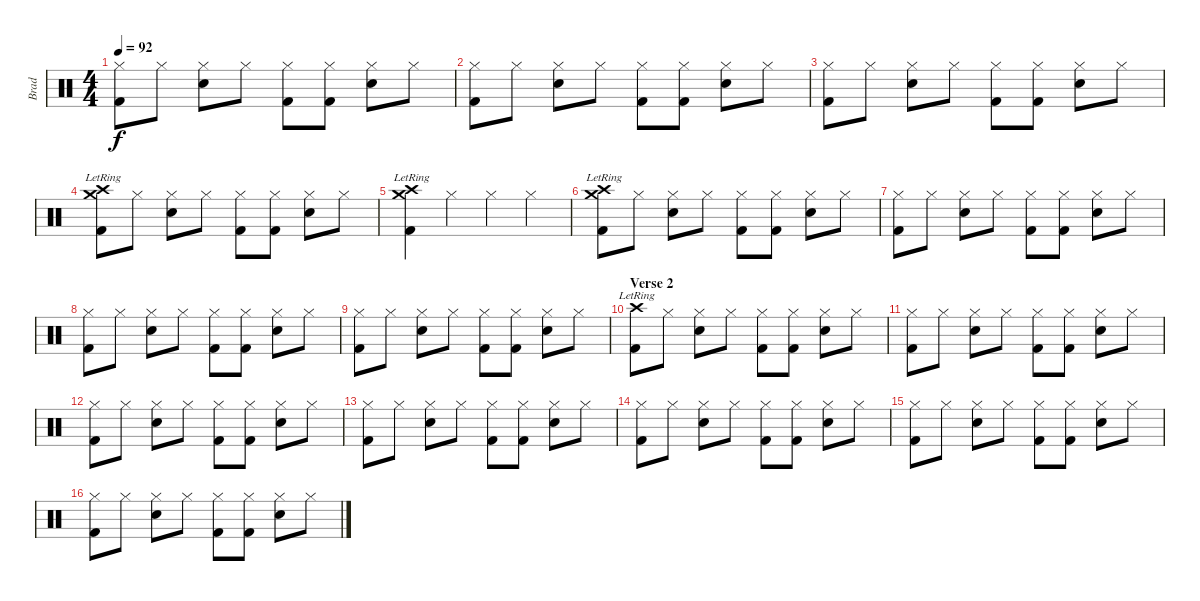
\track ("Brad" "Brad") {instrument percussion}
\staff {score}
\articulation defaults
\ts (4 4)
\tempo 92
\clef neutral
\ks c
("Hi-Hat (closed)" "Kick (hit) 2").8{dy f} "Hi-Hat (closed)".8 ("Hi-Hat (closed)" "Electric Snare (hit)").8 "Hi-Hat (closed)".8 ("Hi-Hat (closed)" "Kick (hit) 2").8 ("Hi-Hat (closed)" "Kick (hit) 2").8 ("Hi-Hat (closed)" "Electric Snare (hit)").8 "Hi-Hat (closed)".8 |
("Hi-Hat (closed)" "Kick (hit) 2").8 "Hi-Hat (closed)".8 ("Hi-Hat (closed)" "Electric Snare (hit)").8 "Hi-Hat (closed)".8 ("Hi-Hat (closed)" "Kick (hit) 2").8 ("Hi-Hat (closed)" "Kick (hit) 2").8 ("Hi-Hat (closed)" "Electric Snare (hit)").8 "Hi-Hat (closed)".8 |
("Hi-Hat (closed)" "Kick (hit) 2").8 "Hi-Hat (closed)".8 ("Hi-Hat (closed)" "Electric Snare (hit)").8 "Hi-Hat (closed)".8 ("Hi-Hat (closed)" "Kick (hit) 2").8 ("Hi-Hat (closed)" "Kick (hit) 2").8 ("Hi-Hat (closed)" "Electric Snare (hit)").8 "Hi-Hat (closed)".8 |
("Crash high (hit)"{lr} "Crash medium (hit)"{lr} "Kick (hit) 2").8 "Hi-Hat (closed)".8 ("Hi-Hat (closed)" "Electric Snare (hit)").8 "Hi-Hat (closed)".8 ("Hi-Hat (closed)" "Kick (hit) 2").8 ("Hi-Hat (closed)" "Kick (hit) 2").8 ("Hi-Hat (closed)" "Electric Snare (hit)").8 "Hi-Hat (closed)".8 |
("Crash high (hit)"{lr} "Crash medium (hit)"{lr} "Kick (hit) 2").4 "Hi-Hat (closed)".4 "Hi-Hat (closed)".4 "Hi-Hat (closed)".4 |
("Crash high (hit)"{lr} "Crash medium (hit)"{lr} "Kick (hit) 2").8 "Hi-Hat (closed)".8 ("Hi-Hat (closed)" "Electric Snare (hit)").8 "Hi-Hat (closed)".8 ("Hi-Hat (closed)" "Kick (hit) 2").8 ("Hi-Hat (closed)" "Kick (hit) 2").8 ("Hi-Hat (closed)" "Electric Snare (hit)").8 "Hi-Hat (closed)".8 |
("Hi-Hat (closed)" "Kick (hit) 2").8 "Hi-Hat (closed)".8 ("Hi-Hat (closed)" "Electric Snare (hit)").8 "Hi-Hat (closed)".8 ("Hi-Hat (closed)" "Kick (hit) 2").8 ("Hi-Hat (closed)" "Kick (hit) 2").8 ("Hi-Hat (closed)" "Electric Snare (hit)").8 "Hi-Hat (closed)".8 |
("Hi-Hat (closed)" "Kick (hit) 2").8 "Hi-Hat (closed)".8 ("Hi-Hat (closed)" "Electric Snare (hit)").8 "Hi-Hat (closed)".8 ("Hi-Hat (closed)" "Kick (hit) 2").8 ("Hi-Hat (closed)" "Kick (hit) 2").8 ("Hi-Hat (closed)" "Electric Snare (hit)").8 "Hi-Hat (closed)".8 |
("Hi-Hat (closed)" "Kick (hit) 2").8 "Hi-Hat (closed)".8 ("Hi-Hat (closed)" "Electric Snare (hit)").8 "Hi-Hat (closed)".8 ("Hi-Hat (closed)" "Kick (hit) 2").8 ("Hi-Hat (closed)" "Kick (hit) 2").8 ("Hi-Hat (closed)" "Electric Snare (hit)").8 "Hi-Hat (closed)".8 |
\section ("" "Verse 2")
("Crash high (hit)"{lr} "Kick (hit) 2").8 "Hi-Hat (closed)".8 ("Hi-Hat (closed)" "Electric Snare (hit)").8 "Hi-Hat (closed)".8 ("Hi-Hat (closed)" "Kick (hit) 2").8 ("Hi-Hat (closed)" "Kick (hit) 2").8 ("Hi-Hat (closed)" "Electric Snare (hit)").8 "Hi-Hat (closed)".8 |
("Hi-Hat (closed)" "Kick (hit) 2").8 "Hi-Hat (closed)".8 ("Hi-Hat (closed)" "Electric Snare (hit)").8 "Hi-Hat (closed)".8 ("Hi-Hat (closed)" "Kick (hit) 2").8 ("Hi-Hat (closed)" "Kick (hit) 2").8 ("Hi-Hat (closed)" "Electric Snare (hit)").8 "Hi-Hat (closed)".8 |
("Hi-Hat (closed)" "Kick (hit) 2").8 "Hi-Hat (closed)".8 ("Hi-Hat (closed)" "Electric Snare (hit)").8 "Hi-Hat (closed)".8 ("Hi-Hat (closed)" "Kick (hit) 2").8 ("Hi-Hat (closed)" "Kick (hit) 2").8 ("Hi-Hat (closed)" "Electric Snare (hit)").8 "Hi-Hat (closed)".8 |
("Hi-Hat (closed)" "Kick (hit) 2").8 "Hi-Hat (closed)".8 ("Hi-Hat (closed)" "Electric Snare (hit)").8 "Hi-Hat (closed)".8 ("Hi-Hat (closed)" "Kick (hit) 2").8 ("Hi-Hat (closed)" "Kick (hit) 2").8 ("Hi-Hat (closed)" "Electric Snare (hit)").8 "Hi-Hat (closed)".8 |
("Hi-Hat (closed)" "Kick (hit) 2").8 "Hi-Hat (closed)".8 ("Hi-Hat (closed)" "Electric Snare (hit)").8 "Hi-Hat (closed)".8 ("Hi-Hat (closed)" "Kick (hit) 2").8 ("Hi-Hat (closed)" "Kick (hit) 2").8 ("Hi-Hat (closed)" "Electric Snare (hit)").8 "Hi-Hat (closed)".8 |
("Hi-Hat (closed)" "Kick (hit) 2").8 "Hi-Hat (closed)".8 ("Hi-Hat (closed)" "Electric Snare (hit)").8 "Hi-Hat (closed)".8 ("Hi-Hat (closed)" "Kick (hit) 2").8 ("Hi-Hat (closed)" "Kick (hit) 2").8 ("Hi-Hat (closed)" "Electric Snare (hit)").8 "Hi-Hat (closed)".8 |
("Hi-Hat (closed)" "Kick (hit) 2").8 "Hi-Hat (closed)".8 ("Hi-Hat (closed)" "Electric Snare (hit)").8 "Hi-Hat (closed)".8 ("Hi-Hat (closed)" "Kick (hit) 2").8 ("Hi-Hat (closed)" "Kick (hit) 2").8 ("Hi-Hat (closed)" "Electric Snare (hit)").8 "Hi-Hat (closed)".8
